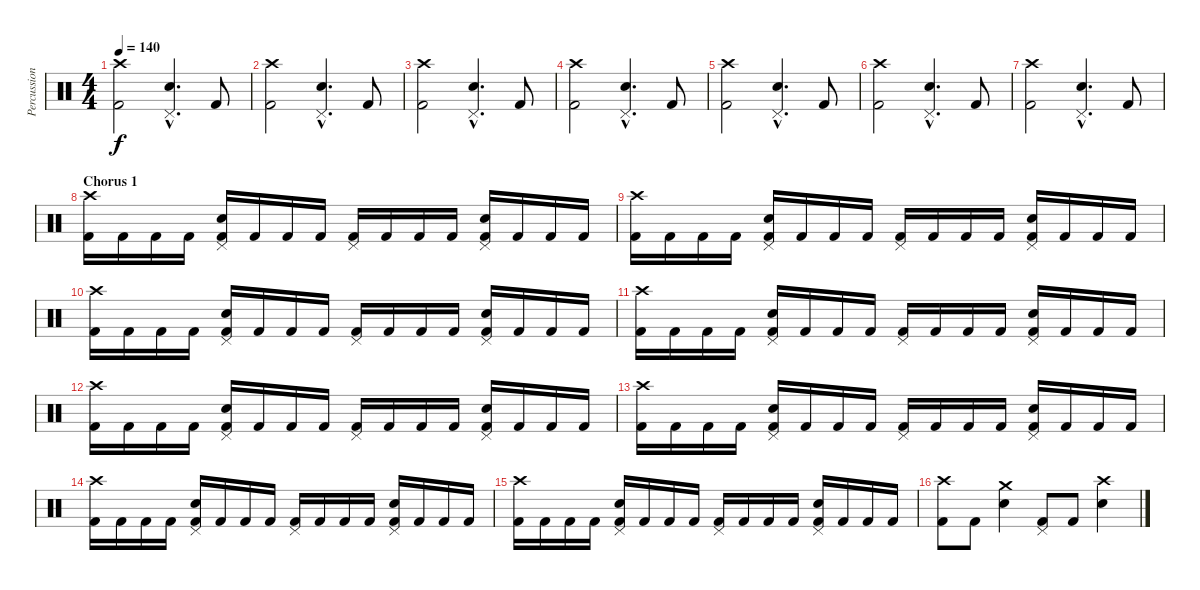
\track ("Percussion" "Percussion") {instrument percussion}
\staff {score}
\articulation defaults
\ts (4 4)
\tempo 140
\clef neutral
\ks c
("Crash high (hit)" "Kick (hit) 2").2{dy f} ("Pedal Hi-Hat (hit)"{hac} "Snare (hit) 2"{hac}).4{d} "Kick (hit) 2".8 |
("Crash high (hit)" "Kick (hit) 2").2 ("Pedal Hi-Hat (hit)"{hac} "Snare (hit) 2"{hac}).4{d} "Kick (hit) 2".8 |
("Crash high (hit)" "Kick (hit) 2").2 ("Pedal Hi-Hat (hit)"{hac} "Snare (hit) 2"{hac}).4{d} "Kick (hit) 2".8 |
("Crash high (hit)" "Kick (hit) 2").2 ("Pedal Hi-Hat (hit)"{hac} "Snare (hit) 2"{hac}).4{d} "Kick (hit) 2".8 |
("Crash high (hit)" "Kick (hit) 2").2 ("Pedal Hi-Hat (hit)"{hac} "Snare (hit) 2"{hac}).4{d} "Kick (hit) 2".8 |
("Crash high (hit)" "Kick (hit) 2").2 ("Pedal Hi-Hat (hit)"{hac} "Snare (hit) 2"{hac}).4{d} "Kick (hit) 2".8 |
("Crash high (hit)" "Kick (hit) 2").2 ("Pedal Hi-Hat (hit)"{hac} "Snare (hit) 2"{hac}).4{d} "Kick (hit) 2".8 |
\section ("" "Chorus 1")
("Crash high (hit)" "Kick (hit) 2").16 "Kick (hit) 2".16 "Kick (hit) 2".16 "Kick (hit) 2".16 ("Pedal Hi-Hat (hit)" "Electric Snare (hit)" "Kick (hit) 2").16 "Kick (hit) 2".16 "Kick (hit) 2".16 "Kick (hit) 2".16 ("Pedal Hi-Hat (hit)" "Kick (hit) 2").16 "Kick (hit) 2".16 "Kick (hit) 2".16 "Kick (hit) 2".16 ("Pedal Hi-Hat (hit)" "Electric Snare (hit)" "Kick (hit) 2").16 "Kick (hit) 2".16 "Kick (hit) 2".16 "Kick (hit) 2".16 |
("Crash high (hit)" "Kick (hit) 2").16 "Kick (hit) 2".16 "Kick (hit) 2".16 "Kick (hit) 2".16 ("Pedal Hi-Hat (hit)" "Electric Snare (hit)" "Kick (hit) 2").16 "Kick (hit) 2".16 "Kick (hit) 2".16 "Kick (hit) 2".16 ("Pedal Hi-Hat (hit)" "Kick (hit) 2").16 "Kick (hit) 2".16 "Kick (hit) 2".16 "Kick (hit) 2".16 ("Pedal Hi-Hat (hit)" "Electric Snare (hit)" "Kick (hit) 2").16 "Kick (hit) 2".16 "Kick (hit) 2".16 "Kick (hit) 2".16 |
("Crash high (hit)" "Kick (hit) 2").16 "Kick (hit) 2".16 "Kick (hit) 2".16 "Kick (hit) 2".16 ("Pedal Hi-Hat (hit)" "Electric Snare (hit)" "Kick (hit) 2").16 "Kick (hit) 2".16 "Kick (hit) 2".16 "Kick (hit) 2".16 ("Pedal Hi-Hat (hit)" "Kick (hit) 2").16 "Kick (hit) 2".16 "Kick (hit) 2".16 "Kick (hit) 2".16 ("Pedal Hi-Hat (hit)" "Electric Snare (hit)" "Kick (hit) 2").16 "Kick (hit) 2".16 "Kick (hit) 2".16 "Kick (hit) 2".16 |
("Crash high (hit)" "Kick (hit) 2").16 "Kick (hit) 2".16 "Kick (hit) 2".16 "Kick (hit) 2".16 ("Pedal Hi-Hat (hit)" "Electric Snare (hit)" "Kick (hit) 2").16 "Kick (hit) 2".16 "Kick (hit) 2".16 "Kick (hit) 2".16 ("Pedal Hi-Hat (hit)" "Kick (hit) 2").16 "Kick (hit) 2".16 "Kick (hit) 2".16 "Kick (hit) 2".16 ("Pedal Hi-Hat (hit)" "Electric Snare (hit)" "Kick (hit) 2").16 "Kick (hit) 2".16 "Kick (hit) 2".16 "Kick (hit) 2".16 |
("Crash high (hit)" "Kick (hit) 2").16 "Kick (hit) 2".16 "Kick (hit) 2".16 "Kick (hit) 2".16 ("Pedal Hi-Hat (hit)" "Electric Snare (hit)" "Kick (hit) 2").16 "Kick (hit) 2".16 "Kick (hit) 2".16 "Kick (hit) 2".16 ("Pedal Hi-Hat (hit)" "Kick (hit) 2").16 "Kick (hit) 2".16 "Kick (hit) 2".16 "Kick (hit) 2".16 ("Pedal Hi-Hat (hit)" "Electric Snare (hit)" "Kick (hit) 2").16 "Kick (hit) 2".16 "Kick (hit) 2".16 "Kick (hit) 2".16 |
("Crash high (hit)" "Kick (hit) 2").16 "Kick (hit) 2".16 "Kick (hit) 2".16 "Kick (hit) 2".16 ("Pedal Hi-Hat (hit)" "Electric Snare (hit)" "Kick (hit) 2").16 "Kick (hit) 2".16 "Kick (hit) 2".16 "Kick (hit) 2".16 ("Pedal Hi-Hat (hit)" "Kick (hit) 2").16 "Kick (hit) 2".16 "Kick (hit) 2".16 "Kick (hit) 2".16 ("Pedal Hi-Hat (hit)" "Electric Snare (hit)" "Kick (hit) 2").16 "Kick (hit) 2".16 "Kick (hit) 2".16 "Kick (hit) 2".16 |
("Crash high (hit)" "Kick (hit) 2").16 "Kick (hit) 2".16 "Kick (hit) 2".16 "Kick (hit) 2".16 ("Pedal Hi-Hat (hit)" "Electric Snare (hit)" "Kick (hit) 2").16 "Kick (hit) 2".16 "Kick (hit) 2".16 "Kick (hit) 2".16 ("Pedal Hi-Hat (hit)" "Kick (hit) 2").16 "Kick (hit) 2".16 "Kick (hit) 2".16 "Kick (hit) 2".16 ("Pedal Hi-Hat (hit)" "Electric Snare (hit)" "Kick (hit) 2").16 "Kick (hit) 2".16 "Kick (hit) 2".16 "Kick (hit) 2".16 |
("Crash high (hit)" "Kick (hit) 2").16 "Kick (hit) 2".16 "Kick (hit) 2".16 "Kick (hit) 2".16 ("Pedal Hi-Hat (hit)" "Electric Snare (hit)" "Kick (hit) 2").16 "Kick (hit) 2".16 "Kick (hit) 2".16 "Kick (hit) 2".16 ("Pedal Hi-Hat (hit)" "Kick (hit) 2").16 "Kick (hit) 2".16 "Kick (hit) 2".16 "Kick (hit) 2".16 ("Pedal Hi-Hat (hit)" "Electric Snare (hit)" "Kick (hit) 2").16 "Kick (hit) 2".16 "Kick (hit) 2".16 "Kick (hit) 2".16 |
("Crash high (hit)" "Kick (hit) 2").8 "Kick (hit) 2".8 ("Crash medium (hit)" "Electric Snare (hit)").4 ("Pedal Hi-Hat (hit)" "Kick (hit) 2").8 "Kick (hit) 2".8 ("Crash high (hit)" "Electric Snare (hit)").4
